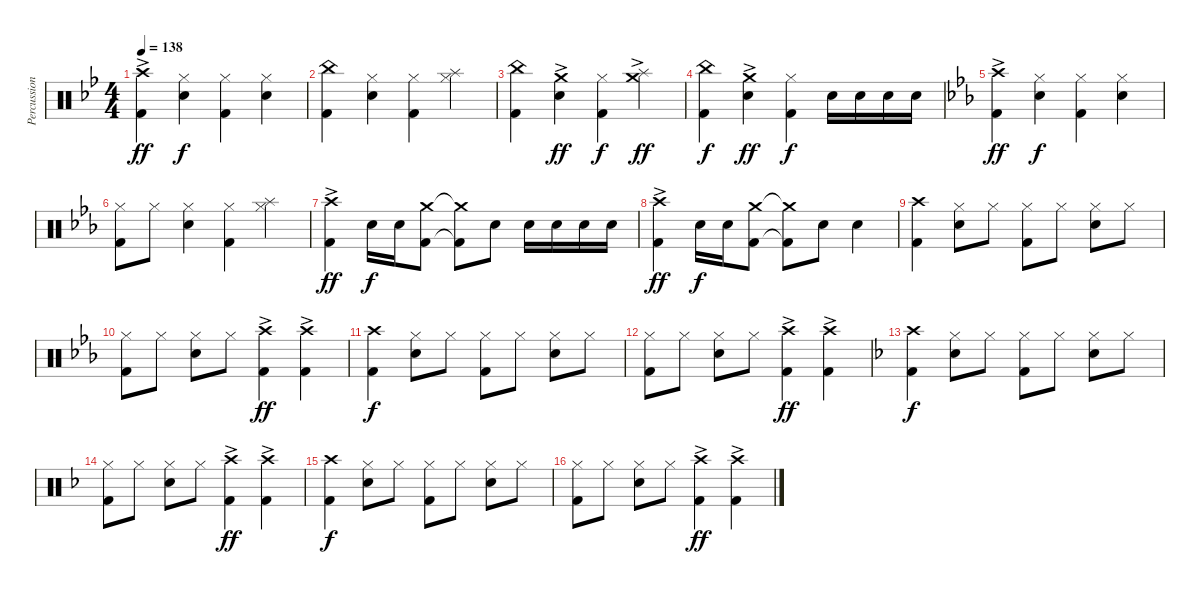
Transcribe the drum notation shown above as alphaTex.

\track ("Percussion" "Percussion") {instrument percussion}
\staff {score}
\articulation defaults
\ts (4 4)
\tempo 138
\clef neutral
\ks bb
("Crash high (hit)"{ac} "Kick (hit) 2").4{dy ff} ("Hi-Hat (closed)" "Snare (hit) 2").4{dy f} ("Hi-Hat (closed)" "Kick (hit) 2").4 ("Hi-Hat (closed)" "Snare (hit) 2").4 |
("China (hit)" "Kick (hit) 2").4 ("Hi-Hat (closed)" "Snare (hit) 2").4 ("Hi-Hat (closed)" "Kick (hit) 2").4 ("Hi-Hat (closed)" "Splash (hit)").4 |
("China (hit)" "Kick (hit) 2").4 ("Crash medium (hit)"{ac} "Snare (hit) 2").4{dy ff} ("Hi-Hat (closed)" "Kick (hit) 2").4{dy f} ("Crash medium (hit)" "Splash (hit)"{ac}).4{dy ff} |
("China (hit)" "Kick (hit) 2").4{dy f} ("Crash medium (hit)"{ac} "Snare (hit) 2").4{dy ff} ("Hi-Hat (closed)" "Kick (hit) 2").4{dy f} "Snare (hit) 2".16 "Snare (hit) 2".16 "Snare (hit) 2".16 "Snare (hit) 2".16 |
\ks eb
("Crash high (hit)"{ac} "Kick (hit) 2").4{dy ff} ("Hi-Hat (closed)" "Snare (hit) 2").4{dy f} ("Hi-Hat (closed)" "Kick (hit) 2").4 ("Hi-Hat (closed)" "Snare (hit) 2").4 |
("Hi-Hat (closed)" "Kick (hit) 2").8 "Hi-Hat (closed)".8 ("Hi-Hat (closed)" "Snare (hit) 2").4 ("Hi-Hat (closed)" "Kick (hit) 2").4 ("Hi-Hat (closed)" "Splash (hit)").4 |
("Crash high (hit)"{ac} "Kick (hit) 2").4{dy ff} "Snare (hit) 2".16{dy f} "Snare (hit) 2".16 ("Crash medium (hit)" "Kick (hit) 2").8 ("Crash medium (hit)"{t} "Kick (hit) 2"{t}).8 "Snare (hit) 2".8 "Snare (hit) 2".16{beam merge} "Snare (hit) 2".16 "Snare (hit) 2".16{beam merge} "Snare (hit) 2".16 |
("Crash high (hit)"{ac} "Kick (hit) 2").4{dy ff} "Snare (hit) 2".16{dy f} "Snare (hit) 2".16 ("Crash medium (hit)" "Kick (hit) 2").8 ("Crash medium (hit)"{t} "Kick (hit) 2"{t}).8 "Snare (hit) 2".8 "Snare (hit) 2".4 |
("Crash high (hit)" "Kick (hit) 2").4 ("Hi-Hat (closed)" "Snare (hit) 2").8 "Hi-Hat (closed)".8 ("Hi-Hat (closed)" "Kick (hit) 2").8 "Hi-Hat (closed)".8 ("Hi-Hat (closed)" "Snare (hit) 2").8 "Hi-Hat (closed)".8 |
("Hi-Hat (closed)" "Kick (hit) 2").8 "Hi-Hat (closed)".8 ("Hi-Hat (closed)" "Snare (hit) 2").8 "Hi-Hat (closed)".8 ("Crash high (hit)"{ac} "Kick (hit) 2").4{dy ff} ("Crash high (hit)" "Kick (hit) 2"{ac}).4 |
("Crash high (hit)" "Kick (hit) 2").4{dy f} ("Hi-Hat (closed)" "Snare (hit) 2").8 "Hi-Hat (closed)".8 ("Hi-Hat (closed)" "Kick (hit) 2").8 "Hi-Hat (closed)".8 ("Hi-Hat (closed)" "Snare (hit) 2").8 "Hi-Hat (closed)".8 |
("Hi-Hat (closed)" "Kick (hit) 2").8 "Hi-Hat (closed)".8 ("Hi-Hat (closed)" "Snare (hit) 2").8 "Hi-Hat (closed)".8 ("Crash high (hit)"{ac} "Kick (hit) 2").4{dy ff} ("Crash high (hit)" "Kick (hit) 2"{ac}).4 |
\ks f
("Crash high (hit)" "Kick (hit) 2").4{dy f} ("Hi-Hat (closed)" "Snare (hit) 2").8 "Hi-Hat (closed)".8 ("Hi-Hat (closed)" "Kick (hit) 2").8 "Hi-Hat (closed)".8 ("Hi-Hat (closed)" "Snare (hit) 2").8 "Hi-Hat (closed)".8 |
("Hi-Hat (closed)" "Kick (hit) 2").8 "Hi-Hat (closed)".8 ("Hi-Hat (closed)" "Snare (hit) 2").8 "Hi-Hat (closed)".8 ("Crash high (hit)"{ac} "Kick (hit) 2").4{dy ff} ("Crash high (hit)" "Kick (hit) 2"{ac}).4 |
("Crash high (hit)" "Kick (hit) 2").4{dy f} ("Hi-Hat (closed)" "Snare (hit) 2").8 "Hi-Hat (closed)".8 ("Hi-Hat (closed)" "Kick (hit) 2").8 "Hi-Hat (closed)".8 ("Hi-Hat (closed)" "Snare (hit) 2").8 "Hi-Hat (closed)".8 |
("Hi-Hat (closed)" "Kick (hit) 2").8 "Hi-Hat (closed)".8 ("Hi-Hat (closed)" "Snare (hit) 2").8 "Hi-Hat (closed)".8 ("Crash high (hit)"{ac} "Kick (hit) 2").4{dy ff} ("Crash high (hit)" "Kick (hit) 2"{ac}).4
